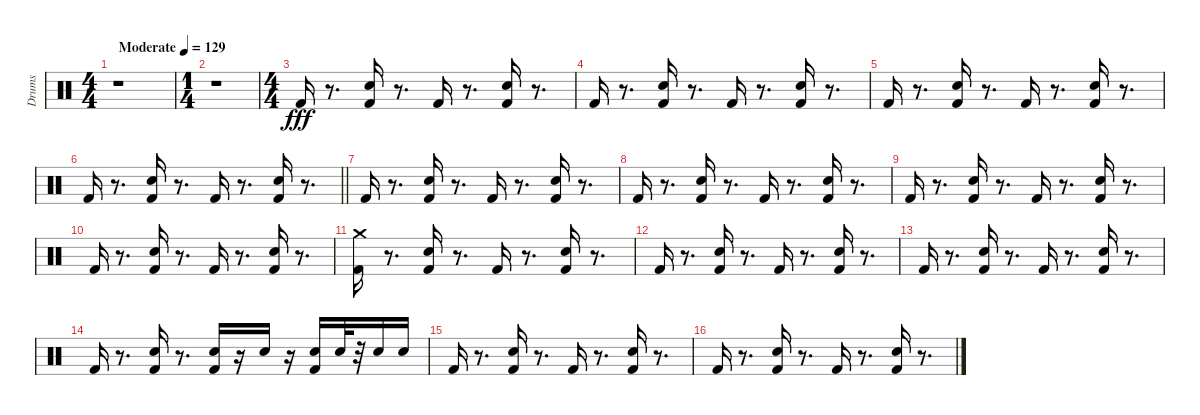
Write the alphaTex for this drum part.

\track ("Drums" "Drums") {instrument percussion}
\staff {score}
\articulation defaults
\ts (4 4)
\tempo (129 "Moderate")
\clef neutral
\ks c
r.1{dy fff} |
\ts (1 4)
r.1 |
\ts (4 4)
"Kick (hit) 2".16 r.8{d} ("Kick (hit) 2" "Electric Snare (hit)").16 r.8{d} "Kick (hit) 2".16 r.8{d} ("Kick (hit) 2" "Electric Snare (hit)").16 r.8{d} |
"Kick (hit) 2".16 r.8{d} ("Kick (hit) 2" "Electric Snare (hit)").16 r.8{d} "Kick (hit) 2".16 r.8{d} ("Kick (hit) 2" "Electric Snare (hit)").16 r.8{d} |
"Kick (hit) 2".16 r.8{d} ("Kick (hit) 2" "Electric Snare (hit)").16 r.8{d} "Kick (hit) 2".16 r.8{d} ("Kick (hit) 2" "Electric Snare (hit)").16 r.8{d} |
\barLineRight lightlight "Kick (hit) 2".16
r.8{d} ("Kick (hit) 2" "Electric Snare (hit)").16 r.8{d} "Kick (hit) 2".16 r.8{d} ("Kick (hit) 2" "Electric Snare (hit)").16 r.8{d} |
"Kick (hit) 2".16 r.8{d} ("Kick (hit) 2" "Electric Snare (hit)").16 r.8{d} "Kick (hit) 2".16 r.8{d} ("Kick (hit) 2" "Electric Snare (hit)").16 r.8{d} |
"Kick (hit) 2".16 r.8{d} ("Kick (hit) 2" "Electric Snare (hit)").16 r.8{d} "Kick (hit) 2".16 r.8{d} ("Electric Snare (hit)" "Kick (hit) 2").16 r.8{d} |
"Kick (hit) 2".16 r.8{d} ("Kick (hit) 2" "Electric Snare (hit)").16 r.8{d} "Kick (hit) 2".16 r.8{d} ("Kick (hit) 2" "Electric Snare (hit)").16 r.8{d} |
"Kick (hit) 2".16 r.8{d} ("Kick (hit) 2" "Electric Snare (hit)").16 r.8{d} "Kick (hit) 2".16 r.8{d} ("Kick (hit) 2" "Electric Snare (hit)").16 r.8{d} |
("Crash medium (hit)" "Kick (hit) 2").16 r.8{d} ("Kick (hit) 2" "Electric Snare (hit)").16 r.8{d} "Kick (hit) 2".16 r.8{d} ("Kick (hit) 2" "Electric Snare (hit)").16 r.8{d} |
"Kick (hit) 2".16 r.8{d} ("Kick (hit) 2" "Electric Snare (hit)").16 r.8{d} "Kick (hit) 2".16 r.8{d} ("Kick (hit) 2" "Electric Snare (hit)").16 r.8{d} |
"Kick (hit) 2".16 r.8{d} ("Kick (hit) 2" "Electric Snare (hit)").16 r.8{d} "Kick (hit) 2".16 r.8{d} ("Kick (hit) 2" "Electric Snare (hit)").16 r.8{d} |
"Kick (hit) 2".16 r.8{d} ("Kick (hit) 2" "Electric Snare (hit)").16 r.8{d} ("Kick (hit) 2" "Electric Snare (hit)").16 r.16 "Electric Snare (hit)".16 r.16 ("Kick (hit) 2" "Electric Snare (hit)").16 "Electric Snare (hit)".32 r.32 "Electric Snare (hit)".16 "Electric Snare (hit)".16 |
"Kick (hit) 2".16 r.8{d} ("Kick (hit) 2" "Electric Snare (hit)").16 r.8{d} "Kick (hit) 2".16 r.8{d} ("Kick (hit) 2" "Electric Snare (hit)").16 r.8{d} |
"Kick (hit) 2".16 r.8{d} ("Kick (hit) 2" "Electric Snare (hit)").16 r.8{d} "Kick (hit) 2".16 r.8{d} ("Kick (hit) 2" "Electric Snare (hit)").16 r.8{d}
